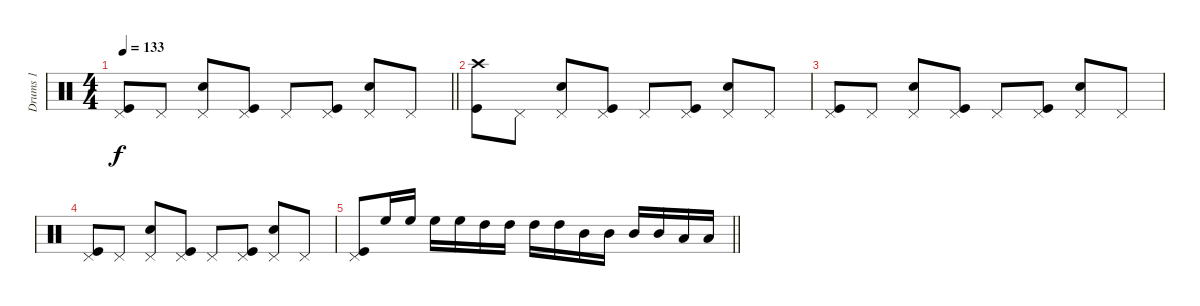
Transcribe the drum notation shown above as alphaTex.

\track ("Drums 1" "Drums 1") {instrument percussion}
\staff {score}
\articulation defaults
\ts (4 4)
\tempo 133
\clef neutral
\barLineRight lightlight
\ks c
("Pedal Hi-Hat (hit)" "Kick (hit)").8{dy f} "Pedal Hi-Hat (hit)".8 ("Pedal Hi-Hat (hit)" "Electric Snare (hit)").8 ("Pedal Hi-Hat (hit)" "Kick (hit)").8 "Pedal Hi-Hat (hit)".8 ("Pedal Hi-Hat (hit)" "Kick (hit)").8 ("Pedal Hi-Hat (hit)" "Electric Snare (hit)").8 "Pedal Hi-Hat (hit)".8 |
("Crash high (hit)" "Kick (hit)").8 "Pedal Hi-Hat (hit)".8 ("Pedal Hi-Hat (hit)" "Electric Snare (hit)").8 ("Pedal Hi-Hat (hit)" "Kick (hit)").8 "Pedal Hi-Hat (hit)".8 ("Pedal Hi-Hat (hit)" "Kick (hit)").8 ("Pedal Hi-Hat (hit)" "Electric Snare (hit)").8 "Pedal Hi-Hat (hit)".8 |
("Pedal Hi-Hat (hit)" "Kick (hit)").8 "Pedal Hi-Hat (hit)".8 ("Pedal Hi-Hat (hit)" "Electric Snare (hit)").8 ("Pedal Hi-Hat (hit)" "Kick (hit)").8 "Pedal Hi-Hat (hit)".8 ("Pedal Hi-Hat (hit)" "Kick (hit)").8 ("Pedal Hi-Hat (hit)" "Electric Snare (hit)").8 "Pedal Hi-Hat (hit)".8 |
("Pedal Hi-Hat (hit)" "Kick (hit)").8 "Pedal Hi-Hat (hit)".8 ("Pedal Hi-Hat (hit)" "Electric Snare (hit)").8 ("Pedal Hi-Hat (hit)" "Kick (hit)").8 "Pedal Hi-Hat (hit)".8 ("Pedal Hi-Hat (hit)" "Kick (hit)").8 ("Pedal Hi-Hat (hit)" "Electric Snare (hit)").8 "Pedal Hi-Hat (hit)".8 |
\barLineRight lightlight
("Pedal Hi-Hat (hit)" "Kick (hit)").8 "High Floor Tom (hit)".16 "High Floor Tom (hit)".16 "High Floor Tom (hit)".16 "High Floor Tom (hit)".16 "High Tom (hit)".16 "High Tom (hit)".16 "High Tom (hit)".16 "High Tom (hit)".16 "Mid Tom (hit)".16 "Mid Tom (hit)".16 "Mid Tom (hit)".16 "Mid Tom (hit)".16 "Low Tom (hit)".16 "Low Tom (hit)".16
